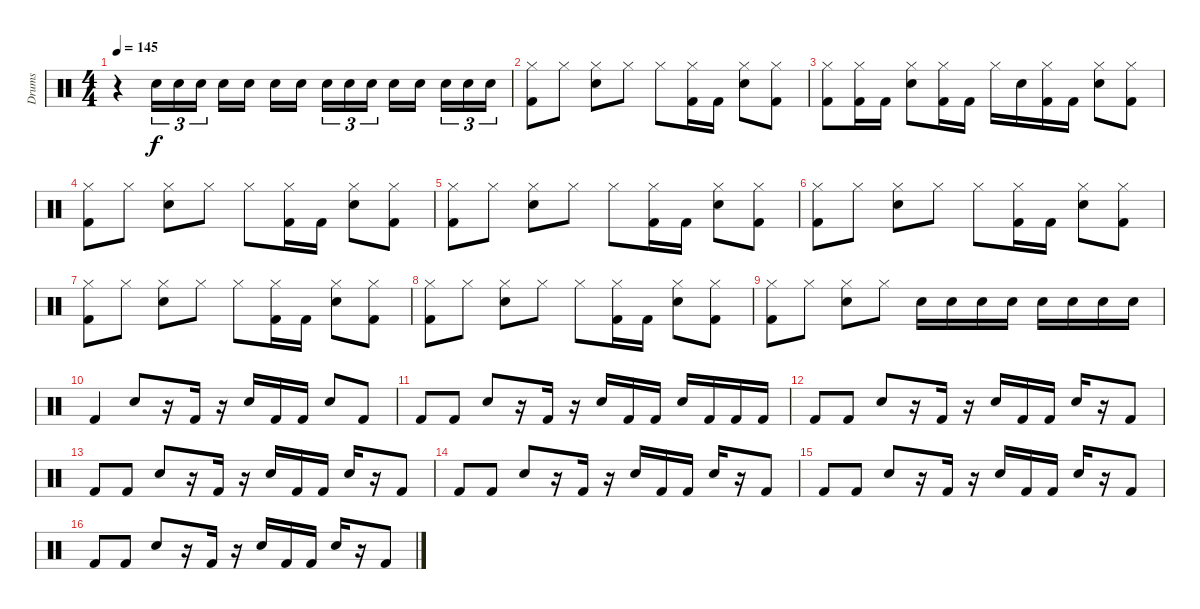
\track ("Drums" "Drums") {instrument percussion}
\staff {score}
\articulation defaults
\ts (4 4)
\tempo 145
\clef neutral
\ks c
r.4{dy f} "Electric Snare (hit)".16{tu (3 2)} "Electric Snare (hit)".16{tu (3 2)} "Electric Snare (hit)".16{tu (3 2)} "Electric Snare (hit)".16 "Electric Snare (hit)".16 "Electric Snare (hit)".16 "Electric Snare (hit)".16 "Electric Snare (hit)".16{tu (3 2)} "Electric Snare (hit)".16{tu (3 2)} "Electric Snare (hit)".16{tu (3 2)} "Electric Snare (hit)".16 "Electric Snare (hit)".16 "Electric Snare (hit)".16{tu (3 2)} "Electric Snare (hit)".16{tu (3 2)} "Electric Snare (hit)".16{tu (3 2)} |
("Hi-Hat (closed)" "Kick (hit) 2").8 "Hi-Hat (closed)".8 ("Hi-Hat (closed)" "Electric Snare (hit)").8 "Hi-Hat (closed)".8 "Hi-Hat (closed)".8 ("Hi-Hat (closed)" "Kick (hit) 2").16 "Kick (hit) 2".16 ("Hi-Hat (closed)" "Electric Snare (hit)").8 ("Hi-Hat (closed)" "Kick (hit) 2").8 |
("Hi-Hat (closed)" "Kick (hit) 2").8 ("Hi-Hat (closed)" "Kick (hit) 2").16 "Kick (hit) 2".16 ("Hi-Hat (closed)" "Electric Snare (hit)").8 ("Hi-Hat (closed)" "Kick (hit) 2").16 "Kick (hit) 2".16 "Hi-Hat (closed)".16 "Electric Snare (hit)".16 ("Hi-Hat (closed)" "Kick (hit) 2").16 "Kick (hit) 2".16 ("Hi-Hat (closed)" "Electric Snare (hit)").8 ("Hi-Hat (closed)" "Kick (hit) 2").8 |
("Hi-Hat (closed)" "Kick (hit) 2").8 "Hi-Hat (closed)".8 ("Hi-Hat (closed)" "Electric Snare (hit)").8 "Hi-Hat (closed)".8 "Hi-Hat (closed)".8 ("Hi-Hat (closed)" "Kick (hit) 2").16 "Kick (hit) 2".16 ("Hi-Hat (closed)" "Electric Snare (hit)").8 ("Hi-Hat (closed)" "Kick (hit) 2").8 |
("Hi-Hat (closed)" "Kick (hit) 2").8 "Hi-Hat (closed)".8 ("Hi-Hat (closed)" "Electric Snare (hit)").8 "Hi-Hat (closed)".8 "Hi-Hat (closed)".8 ("Hi-Hat (closed)" "Kick (hit) 2").16 "Kick (hit) 2".16 ("Hi-Hat (closed)" "Electric Snare (hit)").8 ("Hi-Hat (closed)" "Kick (hit) 2").8 |
("Hi-Hat (closed)" "Kick (hit) 2").8 "Hi-Hat (closed)".8 ("Hi-Hat (closed)" "Electric Snare (hit)").8 "Hi-Hat (closed)".8 "Hi-Hat (closed)".8 ("Hi-Hat (closed)" "Kick (hit) 2").16 "Kick (hit) 2".16 ("Hi-Hat (closed)" "Electric Snare (hit)").8 ("Hi-Hat (closed)" "Kick (hit) 2").8 |
("Hi-Hat (closed)" "Kick (hit) 2").8 "Hi-Hat (closed)".8 ("Hi-Hat (closed)" "Electric Snare (hit)").8 "Hi-Hat (closed)".8 "Hi-Hat (closed)".8 ("Hi-Hat (closed)" "Kick (hit) 2").16 "Kick (hit) 2".16 ("Hi-Hat (closed)" "Electric Snare (hit)").8 ("Hi-Hat (closed)" "Kick (hit) 2").8 |
("Hi-Hat (closed)" "Kick (hit) 2").8 "Hi-Hat (closed)".8 ("Hi-Hat (closed)" "Electric Snare (hit)").8 "Hi-Hat (closed)".8 "Hi-Hat (closed)".8 ("Hi-Hat (closed)" "Kick (hit) 2").16 "Kick (hit) 2".16 ("Hi-Hat (closed)" "Electric Snare (hit)").8 ("Hi-Hat (closed)" "Kick (hit) 2").8 |
("Hi-Hat (closed)" "Kick (hit) 2").8 "Hi-Hat (closed)".8 ("Hi-Hat (closed)" "Electric Snare (hit)").8 "Hi-Hat (closed)".8 "Electric Snare (hit)".16 "Electric Snare (hit)".16 "Electric Snare (hit)".16 "Electric Snare (hit)".16 "Electric Snare (hit)".16 "Electric Snare (hit)".16 "Electric Snare (hit)".16 "Electric Snare (hit)".16 |
"Kick (hit) 2".4 "Electric Snare (hit)".8 r.16 "Kick (hit) 2".16 r.16 "Electric Snare (hit)".16 "Kick (hit) 2".16 "Kick (hit) 2".16 "Electric Snare (hit)".8 "Kick (hit) 2".8 |
"Kick (hit) 2".8 "Kick (hit) 2".8 "Electric Snare (hit)".8 r.16 "Kick (hit) 2".16 r.16 "Electric Snare (hit)".16 "Kick (hit) 2".16 "Kick (hit) 2".16 "Electric Snare (hit)".16 "Kick (hit) 2".16 "Kick (hit) 2".16 "Kick (hit) 2".16 |
"Kick (hit) 2".8 "Kick (hit) 2".8 "Electric Snare (hit)".8 r.16 "Kick (hit) 2".16 r.16 "Electric Snare (hit)".16 "Kick (hit) 2".16 "Kick (hit) 2".16 "Electric Snare (hit)".16 r.16 "Kick (hit) 2".8 |
"Kick (hit) 2".8 "Kick (hit) 2".8 "Electric Snare (hit)".8 r.16 "Kick (hit) 2".16 r.16 "Electric Snare (hit)".16 "Kick (hit) 2".16 "Kick (hit) 2".16 "Electric Snare (hit)".16 r.16 "Kick (hit) 2".8 |
"Kick (hit) 2".8 "Kick (hit) 2".8 "Electric Snare (hit)".8 r.16 "Kick (hit) 2".16 r.16 "Electric Snare (hit)".16 "Kick (hit) 2".16 "Kick (hit) 2".16 "Electric Snare (hit)".16 r.16 "Kick (hit) 2".8 |
"Kick (hit) 2".8 "Kick (hit) 2".8 "Electric Snare (hit)".8 r.16 "Kick (hit) 2".16 r.16 "Electric Snare (hit)".16 "Kick (hit) 2".16 "Kick (hit) 2".16 "Electric Snare (hit)".16 r.16 "Kick (hit) 2".8 |
"Kick (hit) 2".8 "Kick (hit) 2".8 "Electric Snare (hit)".8 r.16 "Kick (hit) 2".16 r.16 "Electric Snare (hit)".16 "Kick (hit) 2".16 "Kick (hit) 2".16 "Electric Snare (hit)".16 r.16 "Kick (hit) 2".8
